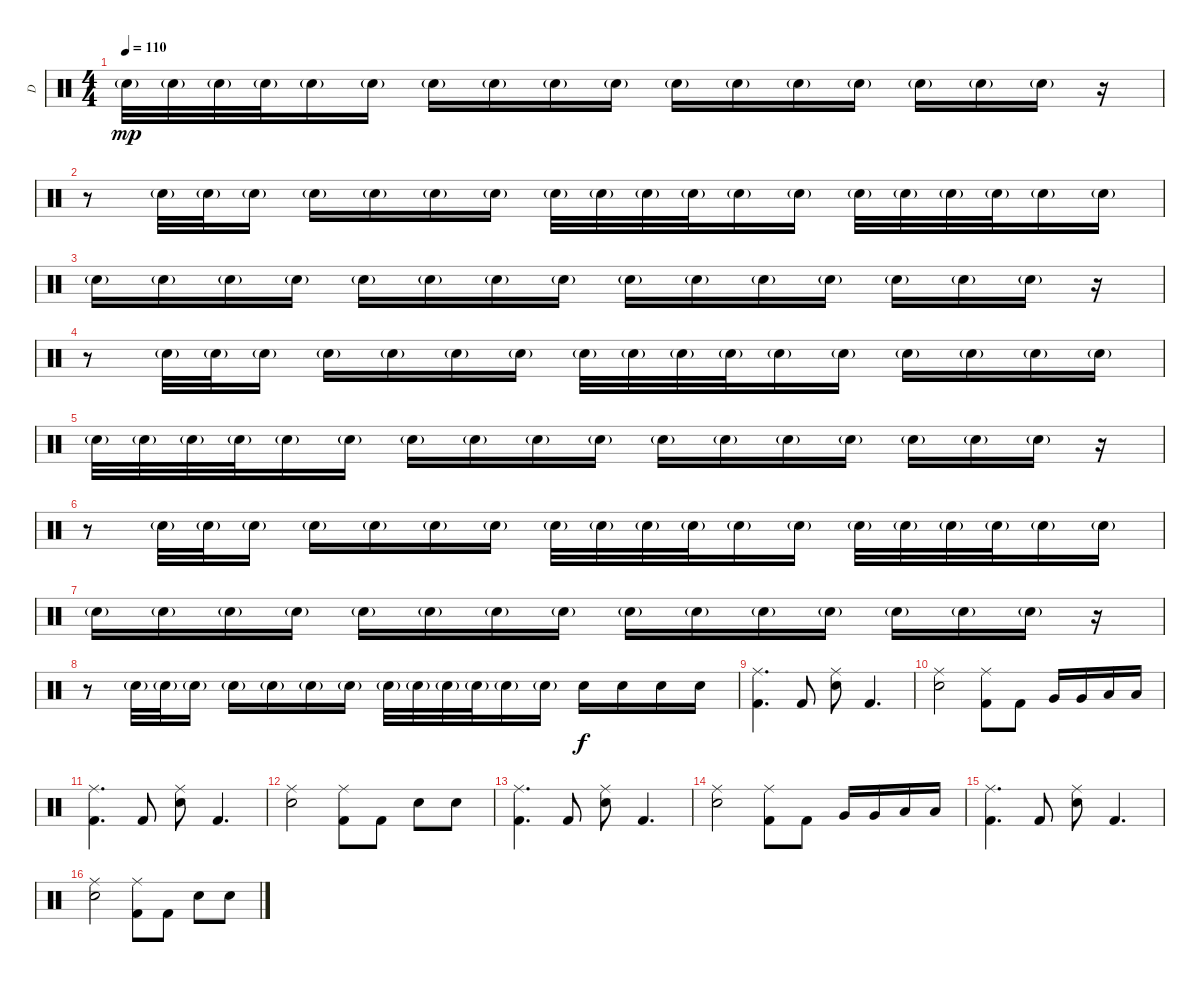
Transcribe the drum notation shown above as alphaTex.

\track ("D" "D") {instrument percussion}
\staff {score}
\articulation defaults
\ts (4 4)
\tempo 110
\clef neutral
\ks c "Electric Snare (hit)"{g}.32{dy mp volume 14} "Electric Snare (hit)"{g}.32 "Electric Snare (hit)"{g}.32 "Electric Snare (hit)"{g}.32 "Electric Snare (hit)"{g}.16 "Electric Snare (hit)"{g}.16 "Electric Snare (hit)"{g}.16 "Electric Snare (hit)"{g}.16 "Electric Snare (hit)"{g}.16 "Electric Snare (hit)"{g}.16 "Electric Snare (hit)"{g}.16 "Electric Snare (hit)"{g}.16 "Electric Snare (hit)"{g}.16 "Electric Snare (hit)"{g}.16 "Electric Snare (hit)"{g}.16 "Electric Snare (hit)"{g}.16 "Electric Snare (hit)"{g}.16
r.16 |
r.8 "Electric Snare (hit)"{g}.32 "Electric Snare (hit)"{g}.32 "Electric Snare (hit)"{g}.16 "Electric Snare (hit)"{g}.16 "Electric Snare (hit)"{g}.16 "Electric Snare (hit)"{g}.16 "Electric Snare (hit)"{g}.16 "Electric Snare (hit)"{g}.32 "Electric Snare (hit)"{g}.32 "Electric Snare (hit)"{g}.32 "Electric Snare (hit)"{g}.32 "Electric Snare (hit)"{g}.16 "Electric Snare (hit)"{g}.16 "Electric Snare (hit)"{g}.32 "Electric Snare (hit)"{g}.32 "Electric Snare (hit)"{g}.32 "Electric Snare (hit)"{g}.32 "Electric Snare (hit)"{g}.16 "Electric Snare (hit)"{g}.16 |
"Electric Snare (hit)"{g}.16 "Electric Snare (hit)"{g}.16 "Electric Snare (hit)"{g}.16 "Electric Snare (hit)"{g}.16 "Electric Snare (hit)"{g}.16 "Electric Snare (hit)"{g}.16 "Electric Snare (hit)"{g}.16 "Electric Snare (hit)"{g}.16 "Electric Snare (hit)"{g}.16 "Electric Snare (hit)"{g}.16 "Electric Snare (hit)"{g}.16 "Electric Snare (hit)"{g}.16 "Electric Snare (hit)"{g}.16 "Electric Snare (hit)"{g}.16 "Electric Snare (hit)"{g}.16 r.16 |
r.8 "Electric Snare (hit)"{g}.32 "Electric Snare (hit)"{g}.32 "Electric Snare (hit)"{g}.16 "Electric Snare (hit)"{g}.16 "Electric Snare (hit)"{g}.16 "Electric Snare (hit)"{g}.16 "Electric Snare (hit)"{g}.16 "Electric Snare (hit)"{g}.32 "Electric Snare (hit)"{g}.32 "Electric Snare (hit)"{g}.32 "Electric Snare (hit)"{g}.32 "Electric Snare (hit)"{g}.16 "Electric Snare (hit)"{g}.16 "Electric Snare (hit)"{g}.16 "Electric Snare (hit)"{g}.16 "Electric Snare (hit)"{g}.16 "Electric Snare (hit)"{g}.16 |
"Electric Snare (hit)"{g}.32{volume 15} "Electric Snare (hit)"{g}.32 "Electric Snare (hit)"{g}.32 "Electric Snare (hit)"{g}.32 "Electric Snare (hit)"{g}.16 "Electric Snare (hit)"{g}.16 "Electric Snare (hit)"{g}.16 "Electric Snare (hit)"{g}.16 "Electric Snare (hit)"{g}.16 "Electric Snare (hit)"{g}.16 "Electric Snare (hit)"{g}.16 "Electric Snare (hit)"{g}.16 "Electric Snare (hit)"{g}.16 "Electric Snare (hit)"{g}.16 "Electric Snare (hit)"{g}.16 "Electric Snare (hit)"{g}.16 "Electric Snare (hit)"{g}.16 r.16 |
r.8 "Electric Snare (hit)"{g}.32 "Electric Snare (hit)"{g}.32 "Electric Snare (hit)"{g}.16 "Electric Snare (hit)"{g}.16 "Electric Snare (hit)"{g}.16 "Electric Snare (hit)"{g}.16 "Electric Snare (hit)"{g}.16 "Electric Snare (hit)"{g}.32 "Electric Snare (hit)"{g}.32 "Electric Snare (hit)"{g}.32 "Electric Snare (hit)"{g}.32 "Electric Snare (hit)"{g}.16 "Electric Snare (hit)"{g}.16 "Electric Snare (hit)"{g}.32 "Electric Snare (hit)"{g}.32 "Electric Snare (hit)"{g}.32 "Electric Snare (hit)"{g}.32 "Electric Snare (hit)"{g}.16 "Electric Snare (hit)"{g}.16 |
"Electric Snare (hit)"{g}.16 "Electric Snare (hit)"{g}.16 "Electric Snare (hit)"{g}.16 "Electric Snare (hit)"{g}.16 "Electric Snare (hit)"{g}.16 "Electric Snare (hit)"{g}.16 "Electric Snare (hit)"{g}.16 "Electric Snare (hit)"{g}.16 "Electric Snare (hit)"{g}.16 "Electric Snare (hit)"{g}.16 "Electric Snare (hit)"{g}.16 "Electric Snare (hit)"{g}.16 "Electric Snare (hit)"{g}.16 "Electric Snare (hit)"{g}.16 "Electric Snare (hit)"{g}.16 r.16 |
r.8 "Electric Snare (hit)"{g}.32 "Electric Snare (hit)"{g}.32 "Electric Snare (hit)"{g}.16 "Electric Snare (hit)"{g}.16 "Electric Snare (hit)"{g}.16 "Electric Snare (hit)"{g}.16 "Electric Snare (hit)"{g}.16 "Electric Snare (hit)"{g}.32 "Electric Snare (hit)"{g}.32 "Electric Snare (hit)"{g}.32 "Electric Snare (hit)"{g}.32 "Electric Snare (hit)"{g}.16 "Electric Snare (hit)"{g}.16 "Electric Snare (hit)".16{dy f} "Electric Snare (hit)".16 "Electric Snare (hit)".16 "Electric Snare (hit)".16 |
("Ride (middle)" "Kick (hit) 2").4{d} "Kick (hit) 2".8 ("Ride (middle)" "Electric Snare (hit)").8 "Kick (hit) 2".4{d} |
("Ride (middle)" "Electric Snare (hit)").2 ("Ride (middle)" "Kick (hit) 2").8 "Kick (hit) 2".8 "Very Low Tom (hit)".16 "Very Low Tom (hit)".16 "Low Floor Tom (hit)".16 "Low Floor Tom (hit)".16 |
("Ride (middle)" "Kick (hit) 2").4{d} "Kick (hit) 2".8 ("Ride (middle)" "Electric Snare (hit)").8 "Kick (hit) 2".4{d} |
("Ride (middle)" "Electric Snare (hit)").2 ("Ride (middle)" "Kick (hit) 2").8 "Kick (hit) 2".8 "Electric Snare (hit)".8 "Electric Snare (hit)".8 |
("Ride (middle)" "Kick (hit) 2").4{d} "Kick (hit) 2".8 ("Ride (middle)" "Electric Snare (hit)").8 "Kick (hit) 2".4{d} |
("Ride (middle)" "Electric Snare (hit)").2 ("Ride (middle)" "Kick (hit) 2").8 "Kick (hit) 2".8 "Very Low Tom (hit)".16 "Very Low Tom (hit)".16 "Low Floor Tom (hit)".16 "Low Floor Tom (hit)".16 |
("Ride (middle)" "Kick (hit) 2").4{d} "Kick (hit) 2".8 ("Ride (middle)" "Electric Snare (hit)").8 "Kick (hit) 2".4{d} |
("Ride (middle)" "Electric Snare (hit)").2 ("Ride (middle)" "Kick (hit) 2").8 "Kick (hit) 2".8 "Electric Snare (hit)".8 "Electric Snare (hit)".8
